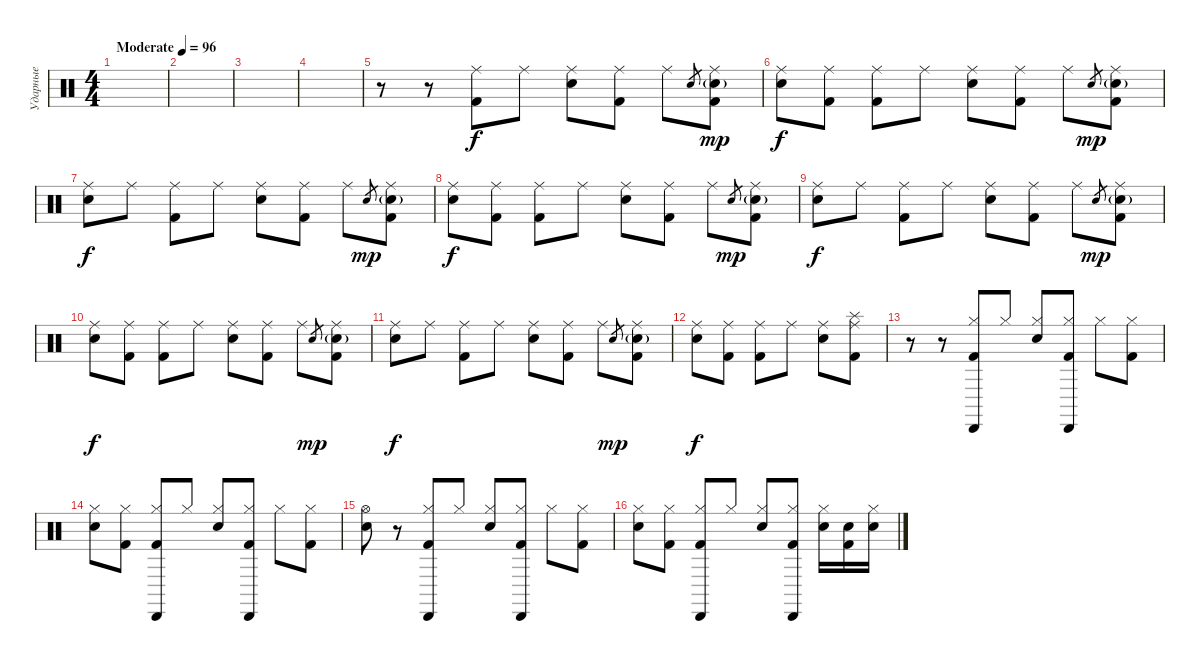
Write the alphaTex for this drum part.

\track ("Ударные" "Ударные") {instrument percussion}
\staff {score}
\articulation defaults
\ts (4 4)
\tempo (96 "Moderate")
\clef neutral
\ks c
|
|
|
|
r.8 r.8 ("Ride (middle)" "Kick (hit) 2").8 "Ride (middle)".8 ("Ride (middle)" "Snare (hit) 2").8 ("Ride (middle)" "Kick (hit) 2").8 "Ride (middle)".8 "Snare (hit) 2".8{gr} ("Ride (middle)" "Snare (hit) 2"{g} "Kick (hit) 2").8{dy mp} |
("Ride (middle)" "Snare (hit) 2").8{dy f} ("Ride (middle)" "Kick (hit) 2").8 ("Ride (middle)" "Kick (hit) 2").8 "Ride (middle)".8 ("Ride (middle)" "Electric Snare (hit)").8 ("Ride (middle)" "Kick (hit) 2").8 "Ride (middle)".8 "Electric Snare (hit)".8{gr dy mp} ("Ride (middle)" "Electric Snare (hit)"{g} "Kick (hit) 2").8 |
("Ride (middle)" "Electric Snare (hit)").8{dy f} "Ride (middle)".8 ("Ride (middle)" "Kick (hit) 2").8 "Ride (middle)".8 ("Ride (middle)" "Snare (hit) 2").8 ("Ride (middle)" "Kick (hit) 2").8 "Ride (middle)".8 "Snare (hit) 2".8{gr dy mp} ("Ride (middle)" "Snare (hit) 2"{g} "Kick (hit) 2").8 |
("Ride (middle)" "Snare (hit) 2").8{dy f} ("Ride (middle)" "Kick (hit) 2").8 ("Ride (middle)" "Kick (hit) 2").8 "Ride (middle)".8 ("Ride (middle)" "Electric Snare (hit)").8 ("Ride (middle)" "Kick (hit) 2").8 "Ride (middle)".8 "Electric Snare (hit)".8{gr dy mp} ("Ride (middle)" "Electric Snare (hit)"{g} "Kick (hit) 2").8 |
("Ride (middle)" "Electric Snare (hit)").8{dy f} "Ride (middle)".8 ("Ride (middle)" "Kick (hit) 2").8 "Ride (middle)".8 ("Ride (middle)" "Snare (hit) 2").8 ("Ride (middle)" "Kick (hit) 2").8 "Ride (middle)".8 "Snare (hit) 2".8{gr dy mp} ("Ride (middle)" "Snare (hit) 2"{g} "Kick (hit) 2").8 |
("Ride (middle)" "Snare (hit) 2").8{dy f} ("Ride (middle)" "Kick (hit) 2").8 ("Ride (middle)" "Kick (hit) 2").8 "Ride (middle)".8 ("Ride (middle)" "Electric Snare (hit)").8 ("Ride (middle)" "Kick (hit) 2").8 "Ride (middle)".8 "Electric Snare (hit)".8{gr dy mp} ("Ride (middle)" "Electric Snare (hit)"{g} "Kick (hit) 2").8 |
("Ride (middle)" "Electric Snare (hit)").8{dy f} "Ride (middle)".8 ("Ride (middle)" "Kick (hit) 2").8 "Ride (middle)".8 ("Ride (middle)" "Snare (hit) 2").8 ("Ride (middle)" "Kick (hit) 2").8 "Ride (middle)".8 "Snare (hit) 2".8{gr dy mp} ("Ride (middle)" "Snare (hit) 2"{g} "Kick (hit) 2").8 |
("Ride (middle)" "Snare (hit) 2").8{dy f} ("Ride (middle)" "Kick (hit) 2").8 ("Ride (middle)" "Kick (hit) 2").8 "Ride (middle)".8 ("Ride (middle)" "Electric Snare (hit)").8 ("Ride (middle)" "Splash (hit)" "Kick (hit) 2").8 |
r.8 r.8 ("Hi-Hat (closed)" "Cabasa (hit)" "Kick (hit) 2").8 "Hi-Hat (closed)".8 ("Hi-Hat (closed)" "Snare (hit) 2").8 ("Hi-Hat (closed)" "Cabasa (hit)" "Kick (hit) 2").8 "Hi-Hat (closed)".8 ("Hi-Hat (closed)" "Kick (hit) 2").8 |
("Hi-Hat (closed)" "Snare (hit) 2").8 ("Hi-Hat (closed)" "Kick (hit) 2").8 ("Hi-Hat (closed)" "Cabasa (hit)" "Kick (hit) 2").8 "Hi-Hat (closed)".8 ("Hi-Hat (closed)" "Electric Snare (hit)").8 ("Hi-Hat (closed)" "Cabasa (hit)" "Kick (hit) 2").8 "Hi-Hat (closed)".8 ("Hi-Hat (closed)" "Kick (hit) 2").8 |
("Hi-Hat (open)" "Electric Snare (hit)").8 r.8 ("Hi-Hat (closed)" "Cabasa (hit)" "Kick (hit) 2").8 "Hi-Hat (closed)".8 ("Hi-Hat (closed)" "Snare (hit) 2").8 ("Hi-Hat (closed)" "Cabasa (hit)" "Kick (hit) 2").8 "Hi-Hat (closed)".8 ("Hi-Hat (closed)" "Kick (hit) 2").8 |
("Hi-Hat (closed)" "Snare (hit) 2").8 ("Hi-Hat (closed)" "Kick (hit) 2").8 ("Hi-Hat (closed)" "Cabasa (hit)" "Kick (hit) 2").8 "Hi-Hat (closed)".8 ("Hi-Hat (closed)" "Electric Snare (hit)").8 ("Hi-Hat (closed)" "Cabasa (hit)" "Kick (hit) 2").8 ("Hi-Hat (closed)" "Electric Snare (hit)").16 ("Electric Snare (hit)" "Kick (hit) 2").16 ("Hi-Hat (closed)" "Electric Snare (hit)").16
